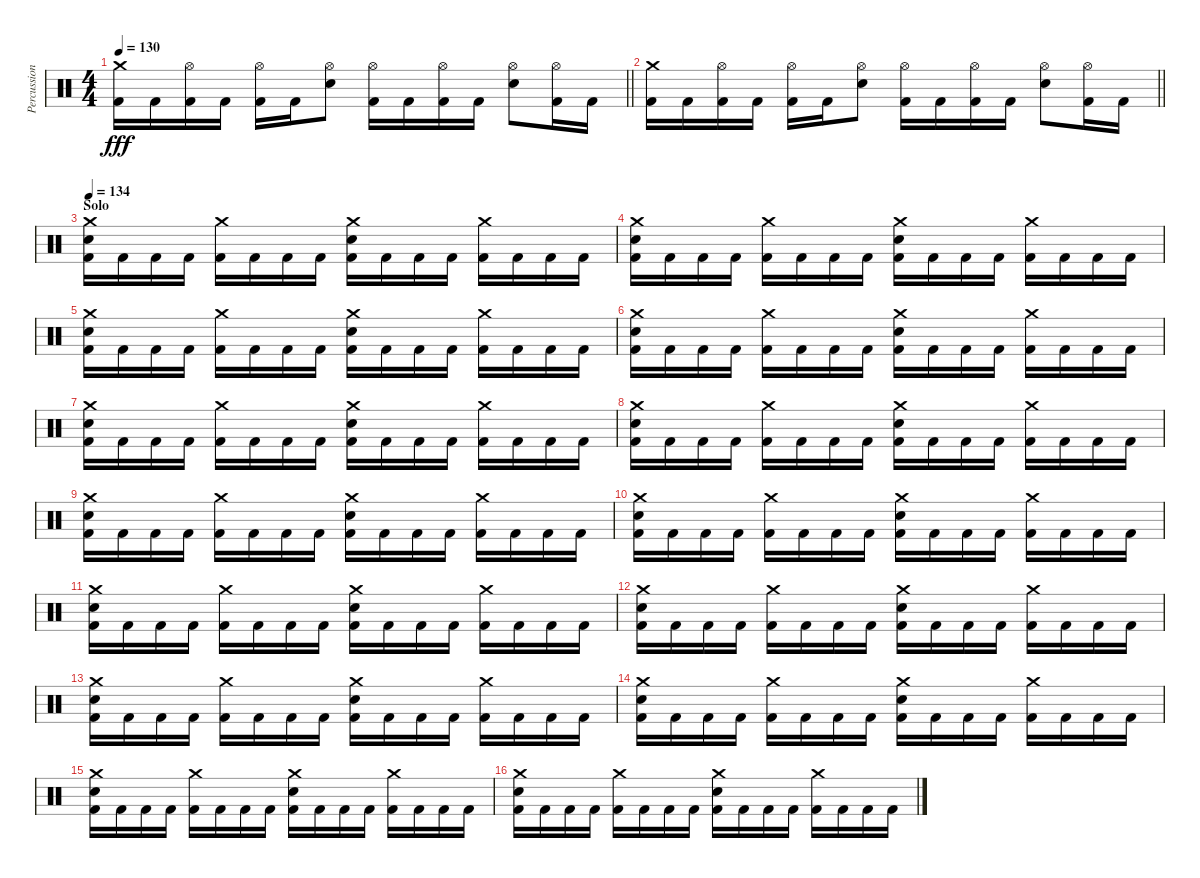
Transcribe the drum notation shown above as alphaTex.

\track ("Percussion" "Percussion") {instrument percussion}
\staff {score}
\articulation defaults
\ts (4 4)
\tempo 130
\clef neutral
\barLineRight lightlight
\ks c
("Crash medium (hit)" "Kick (hit) 2").16{dy fff} "Kick (hit) 2".16 ("Hi-Hat (open)" "Kick (hit) 2").16 "Kick (hit) 2".16 ("Hi-Hat (open)" "Kick (hit) 2").16 "Kick (hit) 2".16 ("Hi-Hat (open)" "Snare (hit) 2").8 ("Hi-Hat (open)" "Kick (hit) 2").16 "Kick (hit) 2".16 ("Hi-Hat (open)" "Kick (hit) 2").16 "Kick (hit) 2".16 ("Hi-Hat (open)" "Snare (hit) 2").8 ("Hi-Hat (open)" "Kick (hit) 2").16 "Kick (hit) 2".16 |
\barLineRight lightlight
("Crash medium (hit)" "Kick (hit) 2").16 "Kick (hit) 2".16 ("Hi-Hat (open)" "Kick (hit) 2").16 "Kick (hit) 2".16 ("Hi-Hat (open)" "Kick (hit) 2").16 "Kick (hit) 2".16 ("Hi-Hat (open)" "Snare (hit) 2").8 ("Hi-Hat (open)" "Kick (hit) 2").16 "Kick (hit) 2".16 ("Hi-Hat (open)" "Kick (hit) 2").16 "Kick (hit) 2".16 ("Hi-Hat (open)" "Snare (hit) 2").8 ("Hi-Hat (open)" "Kick (hit) 2").16 "Kick (hit) 2".16 |
\section ("" "Solo")
\tempo 134
("Crash medium (hit)" "Snare (hit) 2" "Kick (hit) 2").16 "Kick (hit) 2".16 "Kick (hit) 2".16 "Kick (hit) 2".16 ("Crash medium (hit)" "Kick (hit) 2").16 "Kick (hit) 2".16 "Kick (hit) 2".16 "Kick (hit) 2".16 ("Crash medium (hit)" "Snare (hit) 2" "Kick (hit) 2").16 "Kick (hit) 2".16 "Kick (hit) 2".16 "Kick (hit) 2".16 ("Crash medium (hit)" "Kick (hit) 2").16 "Kick (hit) 2".16 "Kick (hit) 2".16 "Kick (hit) 2".16 |
("Crash medium (hit)" "Snare (hit) 2" "Kick (hit) 2").16 "Kick (hit) 2".16 "Kick (hit) 2".16 "Kick (hit) 2".16 ("Crash medium (hit)" "Kick (hit) 2").16 "Kick (hit) 2".16 "Kick (hit) 2".16 "Kick (hit) 2".16 ("Crash medium (hit)" "Snare (hit) 2" "Kick (hit) 2").16 "Kick (hit) 2".16 "Kick (hit) 2".16 "Kick (hit) 2".16 ("Crash medium (hit)" "Kick (hit) 2").16 "Kick (hit) 2".16 "Kick (hit) 2".16 "Kick (hit) 2".16 |
("Crash medium (hit)" "Snare (hit) 2" "Kick (hit) 2").16 "Kick (hit) 2".16 "Kick (hit) 2".16 "Kick (hit) 2".16 ("Crash medium (hit)" "Kick (hit) 2").16 "Kick (hit) 2".16 "Kick (hit) 2".16 "Kick (hit) 2".16 ("Crash medium (hit)" "Snare (hit) 2" "Kick (hit) 2").16 "Kick (hit) 2".16 "Kick (hit) 2".16 "Kick (hit) 2".16 ("Crash medium (hit)" "Kick (hit) 2").16 "Kick (hit) 2".16 "Kick (hit) 2".16 "Kick (hit) 2".16 |
("Crash medium (hit)" "Snare (hit) 2" "Kick (hit) 2").16 "Kick (hit) 2".16 "Kick (hit) 2".16 "Kick (hit) 2".16 ("Crash medium (hit)" "Kick (hit) 2").16 "Kick (hit) 2".16 "Kick (hit) 2".16 "Kick (hit) 2".16 ("Crash medium (hit)" "Snare (hit) 2" "Kick (hit) 2").16 "Kick (hit) 2".16 "Kick (hit) 2".16 "Kick (hit) 2".16 ("Crash medium (hit)" "Kick (hit) 2").16 "Kick (hit) 2".16 "Kick (hit) 2".16 "Kick (hit) 2".16 |
("Crash medium (hit)" "Snare (hit) 2" "Kick (hit) 2").16 "Kick (hit) 2".16 "Kick (hit) 2".16 "Kick (hit) 2".16 ("Crash medium (hit)" "Kick (hit) 2").16 "Kick (hit) 2".16 "Kick (hit) 2".16 "Kick (hit) 2".16 ("Crash medium (hit)" "Snare (hit) 2" "Kick (hit) 2").16 "Kick (hit) 2".16 "Kick (hit) 2".16 "Kick (hit) 2".16 ("Crash medium (hit)" "Kick (hit) 2").16 "Kick (hit) 2".16 "Kick (hit) 2".16 "Kick (hit) 2".16 |
("Crash medium (hit)" "Snare (hit) 2" "Kick (hit) 2").16 "Kick (hit) 2".16 "Kick (hit) 2".16 "Kick (hit) 2".16 ("Crash medium (hit)" "Kick (hit) 2").16 "Kick (hit) 2".16 "Kick (hit) 2".16 "Kick (hit) 2".16 ("Crash medium (hit)" "Snare (hit) 2" "Kick (hit) 2").16 "Kick (hit) 2".16 "Kick (hit) 2".16 "Kick (hit) 2".16 ("Crash medium (hit)" "Kick (hit) 2").16 "Kick (hit) 2".16 "Kick (hit) 2".16 "Kick (hit) 2".16 |
("Crash medium (hit)" "Snare (hit) 2" "Kick (hit) 2").16 "Kick (hit) 2".16 "Kick (hit) 2".16 "Kick (hit) 2".16 ("Crash medium (hit)" "Kick (hit) 2").16 "Kick (hit) 2".16 "Kick (hit) 2".16 "Kick (hit) 2".16 ("Crash medium (hit)" "Snare (hit) 2" "Kick (hit) 2").16 "Kick (hit) 2".16 "Kick (hit) 2".16 "Kick (hit) 2".16 ("Crash medium (hit)" "Kick (hit) 2").16 "Kick (hit) 2".16 "Kick (hit) 2".16 "Kick (hit) 2".16 |
("Crash medium (hit)" "Snare (hit) 2" "Kick (hit) 2").16 "Kick (hit) 2".16 "Kick (hit) 2".16 "Kick (hit) 2".16 ("Crash medium (hit)" "Kick (hit) 2").16 "Kick (hit) 2".16 "Kick (hit) 2".16 "Kick (hit) 2".16 ("Crash medium (hit)" "Snare (hit) 2" "Kick (hit) 2").16 "Kick (hit) 2".16 "Kick (hit) 2".16 "Kick (hit) 2".16 ("Crash medium (hit)" "Kick (hit) 2").16 "Kick (hit) 2".16 "Kick (hit) 2".16 "Kick (hit) 2".16 |
("Crash medium (hit)" "Snare (hit) 2" "Kick (hit) 2").16 "Kick (hit) 2".16 "Kick (hit) 2".16 "Kick (hit) 2".16 ("Crash medium (hit)" "Kick (hit) 2").16 "Kick (hit) 2".16 "Kick (hit) 2".16 "Kick (hit) 2".16 ("Crash medium (hit)" "Snare (hit) 2" "Kick (hit) 2").16 "Kick (hit) 2".16 "Kick (hit) 2".16 "Kick (hit) 2".16 ("Crash medium (hit)" "Kick (hit) 2").16 "Kick (hit) 2".16 "Kick (hit) 2".16 "Kick (hit) 2".16 |
("Crash medium (hit)" "Snare (hit) 2" "Kick (hit) 2").16 "Kick (hit) 2".16 "Kick (hit) 2".16 "Kick (hit) 2".16 ("Crash medium (hit)" "Kick (hit) 2").16 "Kick (hit) 2".16 "Kick (hit) 2".16 "Kick (hit) 2".16 ("Crash medium (hit)" "Snare (hit) 2" "Kick (hit) 2").16 "Kick (hit) 2".16 "Kick (hit) 2".16 "Kick (hit) 2".16 ("Crash medium (hit)" "Kick (hit) 2").16 "Kick (hit) 2".16 "Kick (hit) 2".16 "Kick (hit) 2".16 |
("Crash medium (hit)" "Snare (hit) 2" "Kick (hit) 2").16 "Kick (hit) 2".16 "Kick (hit) 2".16 "Kick (hit) 2".16 ("Crash medium (hit)" "Kick (hit) 2").16 "Kick (hit) 2".16 "Kick (hit) 2".16 "Kick (hit) 2".16 ("Crash medium (hit)" "Snare (hit) 2" "Kick (hit) 2").16 "Kick (hit) 2".16 "Kick (hit) 2".16 "Kick (hit) 2".16 ("Crash medium (hit)" "Kick (hit) 2").16 "Kick (hit) 2".16 "Kick (hit) 2".16 "Kick (hit) 2".16 |
("Crash medium (hit)" "Snare (hit) 2" "Kick (hit) 2").16 "Kick (hit) 2".16 "Kick (hit) 2".16 "Kick (hit) 2".16 ("Crash medium (hit)" "Kick (hit) 2").16 "Kick (hit) 2".16 "Kick (hit) 2".16 "Kick (hit) 2".16 ("Crash medium (hit)" "Snare (hit) 2" "Kick (hit) 2").16 "Kick (hit) 2".16 "Kick (hit) 2".16 "Kick (hit) 2".16 ("Crash medium (hit)" "Kick (hit) 2").16 "Kick (hit) 2".16 "Kick (hit) 2".16 "Kick (hit) 2".16 |
("Crash medium (hit)" "Snare (hit) 2" "Kick (hit) 2").16 "Kick (hit) 2".16 "Kick (hit) 2".16 "Kick (hit) 2".16 ("Crash medium (hit)" "Kick (hit) 2").16 "Kick (hit) 2".16 "Kick (hit) 2".16 "Kick (hit) 2".16 ("Crash medium (hit)" "Snare (hit) 2" "Kick (hit) 2").16 "Kick (hit) 2".16 "Kick (hit) 2".16 "Kick (hit) 2".16 ("Crash medium (hit)" "Kick (hit) 2").16 "Kick (hit) 2".16 "Kick (hit) 2".16 "Kick (hit) 2".16 |
("Crash medium (hit)" "Snare (hit) 2" "Kick (hit) 2").16 "Kick (hit) 2".16 "Kick (hit) 2".16 "Kick (hit) 2".16 ("Crash medium (hit)" "Kick (hit) 2").16 "Kick (hit) 2".16 "Kick (hit) 2".16 "Kick (hit) 2".16 ("Crash medium (hit)" "Snare (hit) 2" "Kick (hit) 2").16 "Kick (hit) 2".16 "Kick (hit) 2".16 "Kick (hit) 2".16 ("Crash medium (hit)" "Kick (hit) 2").16 "Kick (hit) 2".16 "Kick (hit) 2".16 "Kick (hit) 2".16
